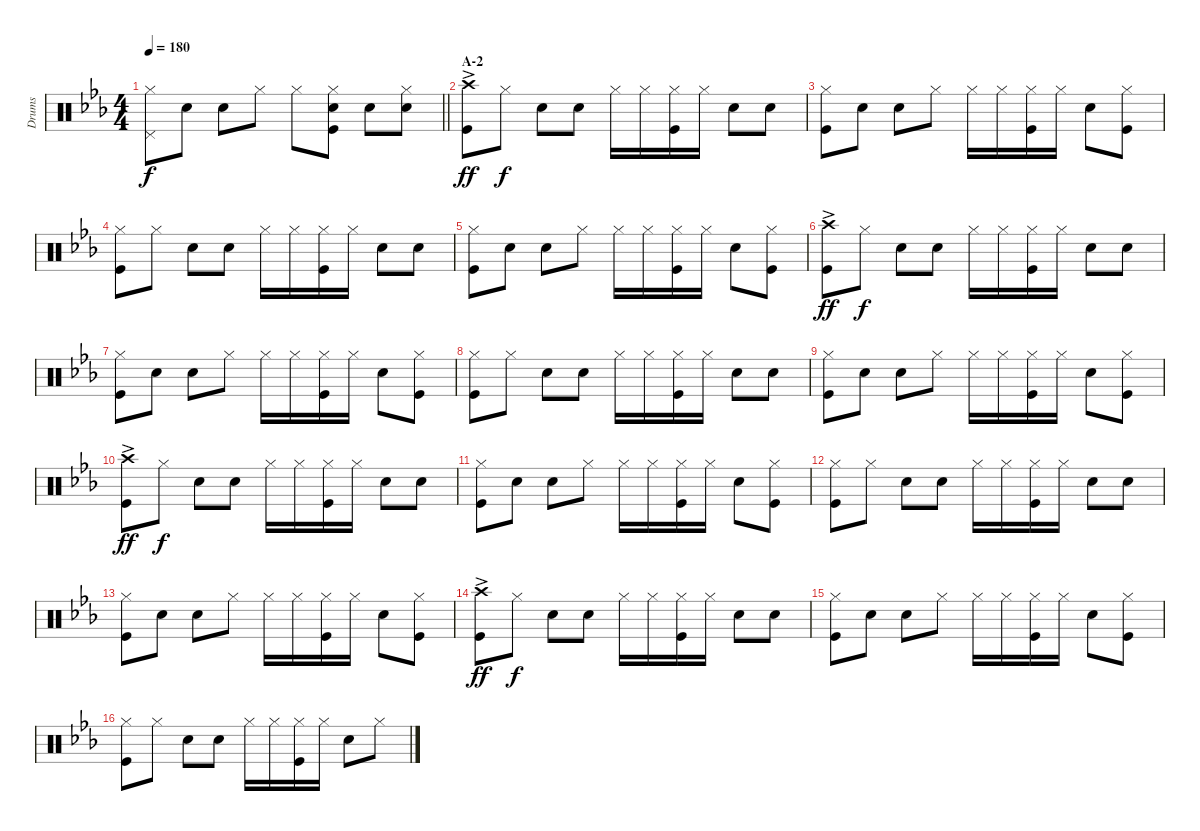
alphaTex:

\track ("Drums" "Drums") {instrument percussion}
\staff {score}
\articulation defaults
\ts (4 4)
\tempo 180
\clef neutral
\barLineRight lightlight
\ks cminor
("Hi-Hat (closed)" "Pedal Hi-Hat (hit)").8{dy f} "Snare (hit) 2".8 "Snare (hit) 2".8 "Hi-Hat (closed)".8 "Hi-Hat (closed)".8 ("Hi-Hat (closed)" "Snare (hit) 2" "Kick (hit)").8 "Snare (hit) 2".8 ("Snare (hit) 2" "Hi-Hat (closed)").8 |
\section ("" "A-2")
("Crash high (hit)"{ac} "Kick (hit)").8{dy ff} "Hi-Hat (closed)".8{dy f} "Snare (hit) 2".8 "Snare (hit) 2".8 "Hi-Hat (closed)".16 "Hi-Hat (closed)".16 ("Hi-Hat (closed)" "Kick (hit)").16 "Hi-Hat (closed)".16 "Snare (hit) 2".8 "Snare (hit) 2".8 |
("Hi-Hat (closed)" "Kick (hit)").8 "Snare (hit) 2".8 "Snare (hit) 2".8 "Hi-Hat (closed)".8 "Hi-Hat (closed)".16 "Hi-Hat (closed)".16 ("Hi-Hat (closed)" "Kick (hit)").16 "Hi-Hat (closed)".16 "Snare (hit) 2".8 ("Kick (hit)" "Hi-Hat (closed)").8 |
("Kick (hit)" "Hi-Hat (closed)").8 "Hi-Hat (closed)".8 "Snare (hit) 2".8 "Snare (hit) 2".8 "Hi-Hat (closed)".16 "Hi-Hat (closed)".16 ("Hi-Hat (closed)" "Kick (hit)").16 "Hi-Hat (closed)".16 "Snare (hit) 2".8 "Snare (hit) 2".8 |
("Kick (hit)" "Hi-Hat (closed)").8 "Snare (hit) 2".8 "Snare (hit) 2".8 "Hi-Hat (closed)".8 "Hi-Hat (closed)".16 "Hi-Hat (closed)".16 ("Hi-Hat (closed)" "Kick (hit)").16 "Hi-Hat (closed)".16 "Snare (hit) 2".8 ("Hi-Hat (closed)" "Kick (hit)").8 |
("Crash high (hit)"{ac} "Kick (hit)").8{dy ff} "Hi-Hat (closed)".8{dy f} "Snare (hit) 2".8 "Snare (hit) 2".8 "Hi-Hat (closed)".16 "Hi-Hat (closed)".16 ("Hi-Hat (closed)" "Kick (hit)").16 "Hi-Hat (closed)".16 "Snare (hit) 2".8 "Snare (hit) 2".8 |
("Hi-Hat (closed)" "Kick (hit)").8 "Snare (hit) 2".8 "Snare (hit) 2".8 "Hi-Hat (closed)".8 "Hi-Hat (closed)".16 "Hi-Hat (closed)".16 ("Hi-Hat (closed)" "Kick (hit)").16 "Hi-Hat (closed)".16 "Snare (hit) 2".8 ("Kick (hit)" "Hi-Hat (closed)").8 |
("Kick (hit)" "Hi-Hat (closed)").8 "Hi-Hat (closed)".8 "Snare (hit) 2".8 "Snare (hit) 2".8 "Hi-Hat (closed)".16 "Hi-Hat (closed)".16 ("Hi-Hat (closed)" "Kick (hit)").16 "Hi-Hat (closed)".16 "Snare (hit) 2".8 "Snare (hit) 2".8 |
("Kick (hit)" "Hi-Hat (closed)").8 "Snare (hit) 2".8 "Snare (hit) 2".8 "Hi-Hat (closed)".8 "Hi-Hat (closed)".16 "Hi-Hat (closed)".16 ("Hi-Hat (closed)" "Kick (hit)").16 "Hi-Hat (closed)".16 "Snare (hit) 2".8 ("Hi-Hat (closed)" "Kick (hit)").8 |
("Crash high (hit)"{ac} "Kick (hit)").8{dy ff} "Hi-Hat (closed)".8{dy f} "Snare (hit) 2".8 "Snare (hit) 2".8 "Hi-Hat (closed)".16 "Hi-Hat (closed)".16 ("Hi-Hat (closed)" "Kick (hit)").16 "Hi-Hat (closed)".16 "Snare (hit) 2".8 "Snare (hit) 2".8 |
("Hi-Hat (closed)" "Kick (hit)").8 "Snare (hit) 2".8 "Snare (hit) 2".8 "Hi-Hat (closed)".8 "Hi-Hat (closed)".16 "Hi-Hat (closed)".16 ("Hi-Hat (closed)" "Kick (hit)").16 "Hi-Hat (closed)".16 "Snare (hit) 2".8 ("Kick (hit)" "Hi-Hat (closed)").8 |
("Kick (hit)" "Hi-Hat (closed)").8 "Hi-Hat (closed)".8 "Snare (hit) 2".8 "Snare (hit) 2".8 "Hi-Hat (closed)".16 "Hi-Hat (closed)".16 ("Hi-Hat (closed)" "Kick (hit)").16 "Hi-Hat (closed)".16 "Snare (hit) 2".8 "Snare (hit) 2".8 |
("Kick (hit)" "Hi-Hat (closed)").8 "Snare (hit) 2".8 "Snare (hit) 2".8 "Hi-Hat (closed)".8 "Hi-Hat (closed)".16 "Hi-Hat (closed)".16 ("Hi-Hat (closed)" "Kick (hit)").16 "Hi-Hat (closed)".16 "Snare (hit) 2".8 ("Hi-Hat (closed)" "Kick (hit)").8 |
("Crash high (hit)"{ac} "Kick (hit)").8{dy ff} "Hi-Hat (closed)".8{dy f} "Snare (hit) 2".8 "Snare (hit) 2".8 "Hi-Hat (closed)".16 "Hi-Hat (closed)".16 ("Hi-Hat (closed)" "Kick (hit)").16 "Hi-Hat (closed)".16 "Snare (hit) 2".8 "Snare (hit) 2".8 |
("Hi-Hat (closed)" "Kick (hit)").8 "Snare (hit) 2".8 "Snare (hit) 2".8 "Hi-Hat (closed)".8 "Hi-Hat (closed)".16 "Hi-Hat (closed)".16 ("Hi-Hat (closed)" "Kick (hit)").16 "Hi-Hat (closed)".16 "Snare (hit) 2".8 ("Kick (hit)" "Hi-Hat (closed)").8 |
("Kick (hit)" "Hi-Hat (closed)").8 "Hi-Hat (closed)".8 "Snare (hit) 2".8 "Snare (hit) 2".8 "Hi-Hat (closed)".16 "Hi-Hat (closed)".16 ("Hi-Hat (closed)" "Kick (hit)").16 "Hi-Hat (closed)".16 "Snare (hit) 2".8 "Hi-Hat (closed)".8
